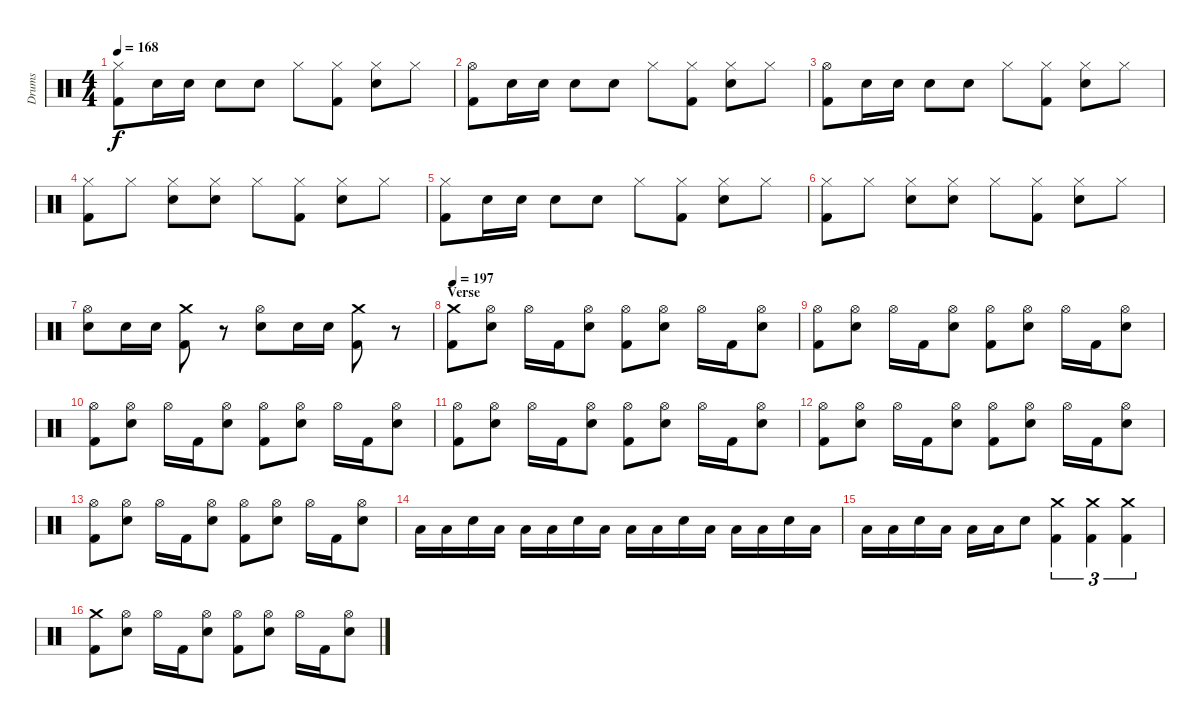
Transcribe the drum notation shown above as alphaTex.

\track ("Drums" "Drums") {instrument percussion}
\staff {score}
\articulation defaults
\ts (4 4)
\tempo 168
\clef neutral
\ks c
("Hi-Hat (closed)" "Kick (hit) 2").8{dy f} "Electric Snare (hit)".16 "Electric Snare (hit)".16 "Electric Snare (hit)".8 "Electric Snare (hit)".8 "Hi-Hat (closed)".8 ("Hi-Hat (closed)" "Kick (hit) 2").8 ("Hi-Hat (closed)" "Electric Snare (hit)").8 "Hi-Hat (closed)".8 |
("Hi-Hat (open)" "Kick (hit) 2").8 "Electric Snare (hit)".16 "Electric Snare (hit)".16 "Electric Snare (hit)".8 "Electric Snare (hit)".8 "Hi-Hat (closed)".8 ("Hi-Hat (closed)" "Kick (hit) 2").8 ("Hi-Hat (closed)" "Electric Snare (hit)").8 "Hi-Hat (closed)".8 |
("Hi-Hat (open)" "Kick (hit) 2").8 "Electric Snare (hit)".16 "Electric Snare (hit)".16 "Electric Snare (hit)".8 "Electric Snare (hit)".8 "Hi-Hat (closed)".8 ("Hi-Hat (closed)" "Kick (hit) 2").8 ("Hi-Hat (closed)" "Electric Snare (hit)").8 "Hi-Hat (closed)".8 |
("Hi-Hat (closed)" "Kick (hit) 2").8 "Hi-Hat (closed)".8 ("Hi-Hat (closed)" "Electric Snare (hit)").8 ("Hi-Hat (closed)" "Electric Snare (hit)").8 "Hi-Hat (closed)".8 ("Hi-Hat (closed)" "Kick (hit) 2").8 ("Hi-Hat (closed)" "Electric Snare (hit)").8 "Hi-Hat (closed)".8 |
("Hi-Hat (closed)" "Kick (hit) 2").8 "Electric Snare (hit)".16 "Electric Snare (hit)".16 "Electric Snare (hit)".8 "Electric Snare (hit)".8 "Hi-Hat (closed)".8 ("Hi-Hat (closed)" "Kick (hit) 2").8 ("Hi-Hat (closed)" "Electric Snare (hit)").8 "Hi-Hat (closed)".8 |
("Hi-Hat (closed)" "Kick (hit) 2").8 "Hi-Hat (closed)".8 ("Hi-Hat (closed)" "Electric Snare (hit)").8 ("Hi-Hat (closed)" "Electric Snare (hit)").8 "Hi-Hat (closed)".8 ("Hi-Hat (closed)" "Kick (hit) 2").8 ("Hi-Hat (closed)" "Electric Snare (hit)").8 "Hi-Hat (closed)".8 |
("Hi-Hat (open)" "Electric Snare (hit)").8 "Electric Snare (hit)".16 "Electric Snare (hit)".16 ("Crash medium (hit)" "Kick (hit) 2").8 r.8 ("Hi-Hat (open)" "Electric Snare (hit)").8 "Electric Snare (hit)".16 "Electric Snare (hit)".16 ("Crash medium (hit)" "Kick (hit) 2").8 r.8 |
\section ("" "Verse")
\tempo 197
("Crash medium (hit)" "Kick (hit) 2").8 ("Hi-Hat (open)" "Electric Snare (hit)").8 "Hi-Hat (open)".16 "Kick (hit) 2".16 ("Hi-Hat (open)" "Electric Snare (hit)").8 ("Hi-Hat (open)" "Kick (hit) 2").8 ("Hi-Hat (open)" "Electric Snare (hit)").8 "Hi-Hat (open)".16 "Kick (hit) 2".16 ("Hi-Hat (open)" "Electric Snare (hit)").8 |
("Hi-Hat (open)" "Kick (hit) 2").8 ("Hi-Hat (open)" "Electric Snare (hit)").8 "Hi-Hat (open)".16 "Kick (hit) 2".16 ("Hi-Hat (open)" "Electric Snare (hit)").8 ("Hi-Hat (open)" "Kick (hit) 2").8 ("Hi-Hat (open)" "Electric Snare (hit)").8 "Hi-Hat (open)".16 "Kick (hit) 2".16 ("Hi-Hat (open)" "Electric Snare (hit)").8 |
("Hi-Hat (open)" "Kick (hit) 2").8 ("Hi-Hat (open)" "Electric Snare (hit)").8 "Hi-Hat (open)".16 "Kick (hit) 2".16 ("Hi-Hat (open)" "Electric Snare (hit)").8 ("Hi-Hat (open)" "Kick (hit) 2").8 ("Hi-Hat (open)" "Electric Snare (hit)").8 "Hi-Hat (open)".16 "Kick (hit) 2".16 ("Hi-Hat (open)" "Electric Snare (hit)").8 |
("Hi-Hat (open)" "Kick (hit) 2").8 ("Hi-Hat (open)" "Electric Snare (hit)").8 "Hi-Hat (open)".16 "Kick (hit) 2".16 ("Hi-Hat (open)" "Electric Snare (hit)").8 ("Hi-Hat (open)" "Kick (hit) 2").8 ("Hi-Hat (open)" "Electric Snare (hit)").8 "Hi-Hat (open)".16 "Kick (hit) 2".16 ("Hi-Hat (open)" "Electric Snare (hit)").8 |
("Hi-Hat (open)" "Kick (hit) 2").8 ("Hi-Hat (open)" "Electric Snare (hit)").8 "Hi-Hat (open)".16 "Kick (hit) 2".16 ("Hi-Hat (open)" "Electric Snare (hit)").8 ("Hi-Hat (open)" "Kick (hit) 2").8 ("Hi-Hat (open)" "Electric Snare (hit)").8 "Hi-Hat (open)".16 "Kick (hit) 2".16 ("Hi-Hat (open)" "Electric Snare (hit)").8 |
("Hi-Hat (open)" "Kick (hit) 2").8 ("Hi-Hat (open)" "Electric Snare (hit)").8 "Hi-Hat (open)".16 "Kick (hit) 2".16 ("Hi-Hat (open)" "Electric Snare (hit)").8 ("Hi-Hat (open)" "Kick (hit) 2").8 ("Hi-Hat (open)" "Electric Snare (hit)").8 "Hi-Hat (open)".16 "Kick (hit) 2".16 ("Hi-Hat (open)" "Electric Snare (hit)").8 |
"Low Tom (hit)".16 "Low Tom (hit)".16 "Electric Snare (hit)".16 "Low Tom (hit)".16 "Low Tom (hit)".16 "Low Tom (hit)".16 "Electric Snare (hit)".16 "Low Tom (hit)".16 "Low Tom (hit)".16 "Low Tom (hit)".16 "Electric Snare (hit)".16 "Low Tom (hit)".16 "Low Tom (hit)".16 "Low Tom (hit)".16 "Electric Snare (hit)".16 "Low Tom (hit)".16 |
"Low Tom (hit)".16 "Low Tom (hit)".16 "Electric Snare (hit)".16 "Low Tom (hit)".16 "Low Tom (hit)".16 "Low Tom (hit)".16 "Electric Snare (hit)".8 ("Crash medium (hit)" "Kick (hit) 2").4{tu (3 2)} ("Crash medium (hit)" "Kick (hit) 2").4{tu (3 2)} ("Crash medium (hit)" "Kick (hit) 2").4{tu (3 2)} |
("Crash medium (hit)" "Kick (hit) 2").8 ("Hi-Hat (open)" "Electric Snare (hit)").8 "Hi-Hat (open)".16 "Kick (hit) 2".16 ("Hi-Hat (open)" "Electric Snare (hit)").8 ("Hi-Hat (open)" "Kick (hit) 2").8 ("Hi-Hat (open)" "Electric Snare (hit)").8 "Hi-Hat (open)".16 "Kick (hit) 2".16 ("Hi-Hat (open)" "Electric Snare (hit)").8
